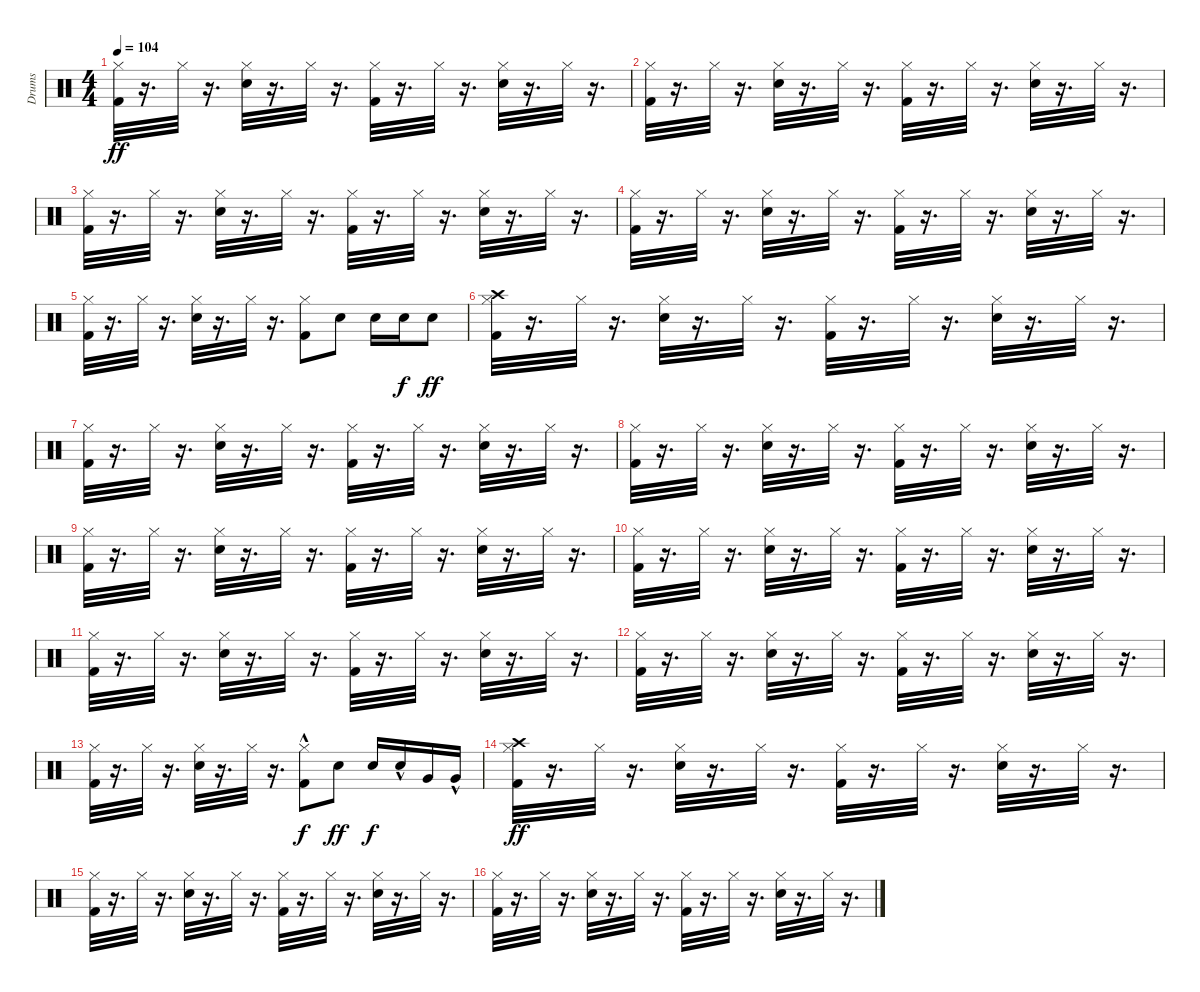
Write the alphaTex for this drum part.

\track ("Drums" "Drums") {instrument percussion}
\staff {score}
\articulation defaults
\ts (4 4)
\tempo 104
\clef neutral
\ks c
("Kick (hit) 2" "Hi-Hat (closed)").32{dy ff volume 12 balance 8} r.16{d} "Hi-Hat (closed)".32 r.16{d} ("Snare (hit) 2" "Hi-Hat (closed)").32 r.16{d} "Hi-Hat (closed)".32 r.16{d} ("Kick (hit) 2" "Hi-Hat (closed)").32 r.16{d} "Hi-Hat (closed)".32 r.16{d} ("Snare (hit) 2" "Hi-Hat (closed)").32 r.16{d} "Hi-Hat (closed)".32 r.16{d} |
("Kick (hit) 2" "Hi-Hat (closed)").32{volume 12 balance 8} r.16{d} "Hi-Hat (closed)".32 r.16{d} ("Snare (hit) 2" "Hi-Hat (closed)").32 r.16{d} "Hi-Hat (closed)".32 r.16{d} ("Kick (hit) 2" "Hi-Hat (closed)").32 r.16{d} "Hi-Hat (closed)".32 r.16{d} ("Snare (hit) 2" "Hi-Hat (closed)").32 r.16{d} "Hi-Hat (closed)".32 r.16{d} |
("Kick (hit) 2" "Hi-Hat (closed)").32{volume 12 balance 8} r.16{d} "Hi-Hat (closed)".32 r.16{d} ("Snare (hit) 2" "Hi-Hat (closed)").32 r.16{d} "Hi-Hat (closed)".32 r.16{d} ("Kick (hit) 2" "Hi-Hat (closed)").32 r.16{d} "Hi-Hat (closed)".32 r.16{d} ("Snare (hit) 2" "Hi-Hat (closed)").32 r.16{d} "Hi-Hat (closed)".32 r.16{d} |
("Kick (hit) 2" "Hi-Hat (closed)").32{volume 12 balance 8} r.16{d} "Hi-Hat (closed)".32 r.16{d} ("Snare (hit) 2" "Hi-Hat (closed)").32 r.16{d} "Hi-Hat (closed)".32 r.16{d} ("Kick (hit) 2" "Hi-Hat (closed)").32 r.16{d} "Hi-Hat (closed)".32 r.16{d} ("Snare (hit) 2" "Hi-Hat (closed)").32 r.16{d} "Hi-Hat (closed)".32 r.16{d} |
("Kick (hit) 2" "Hi-Hat (closed)").32{volume 12 balance 8} r.16{d} "Hi-Hat (closed)".32 r.16{d} ("Snare (hit) 2" "Hi-Hat (closed)").32 r.16{d} "Hi-Hat (closed)".32 r.16{d} ("Kick (hit) 2" "Hi-Hat (closed)").8 "Snare (hit) 2".8 "Snare (hit) 2".16 "Snare (hit) 2".16{dy f} "Snare (hit) 2".8{dy ff} |
("Kick (hit) 2" "Hi-Hat (closed)" "Crash high (hit)").32{volume 12 balance 8} r.16{d} "Hi-Hat (closed)".32 r.16{d} ("Snare (hit) 2" "Hi-Hat (closed)").32 r.16{d} "Hi-Hat (closed)".32 r.16{d} ("Kick (hit) 2" "Hi-Hat (closed)").32 r.16{d} "Hi-Hat (closed)".32 r.16{d} ("Snare (hit) 2" "Hi-Hat (closed)").32 r.16{d} "Hi-Hat (closed)".32 r.16{d} |
("Kick (hit) 2" "Hi-Hat (closed)").32{volume 12 balance 8} r.16{d} "Hi-Hat (closed)".32 r.16{d} ("Snare (hit) 2" "Hi-Hat (closed)").32 r.16{d} "Hi-Hat (closed)".32 r.16{d} ("Kick (hit) 2" "Hi-Hat (closed)").32 r.16{d} "Hi-Hat (closed)".32 r.16{d} ("Snare (hit) 2" "Hi-Hat (closed)").32 r.16{d} "Hi-Hat (closed)".32 r.16{d} |
("Kick (hit) 2" "Hi-Hat (closed)").32{volume 12 balance 8} r.16{d} "Hi-Hat (closed)".32 r.16{d} ("Snare (hit) 2" "Hi-Hat (closed)").32 r.16{d} "Hi-Hat (closed)".32 r.16{d} ("Kick (hit) 2" "Hi-Hat (closed)").32 r.16{d} "Hi-Hat (closed)".32 r.16{d} ("Snare (hit) 2" "Hi-Hat (closed)").32 r.16{d} "Hi-Hat (closed)".32 r.16{d} |
("Kick (hit) 2" "Hi-Hat (closed)").32{volume 12 balance 8} r.16{d} "Hi-Hat (closed)".32 r.16{d} ("Snare (hit) 2" "Hi-Hat (closed)").32 r.16{d} "Hi-Hat (closed)".32 r.16{d} ("Kick (hit) 2" "Hi-Hat (closed)").32 r.16{d} "Hi-Hat (closed)".32 r.16{d} ("Snare (hit) 2" "Hi-Hat (closed)").32 r.16{d} "Hi-Hat (closed)".32 r.16{d} |
("Kick (hit) 2" "Hi-Hat (closed)").32{volume 12 balance 8} r.16{d} "Hi-Hat (closed)".32 r.16{d} ("Snare (hit) 2" "Hi-Hat (closed)").32 r.16{d} "Hi-Hat (closed)".32 r.16{d} ("Kick (hit) 2" "Hi-Hat (closed)").32 r.16{d} "Hi-Hat (closed)".32 r.16{d} ("Snare (hit) 2" "Hi-Hat (closed)").32 r.16{d} "Hi-Hat (closed)".32 r.16{d} |
("Kick (hit) 2" "Hi-Hat (closed)").32{volume 12 balance 8} r.16{d} "Hi-Hat (closed)".32 r.16{d} ("Snare (hit) 2" "Hi-Hat (closed)").32 r.16{d} "Hi-Hat (closed)".32 r.16{d} ("Kick (hit) 2" "Hi-Hat (closed)").32 r.16{d} "Hi-Hat (closed)".32 r.16{d} ("Snare (hit) 2" "Hi-Hat (closed)").32 r.16{d} "Hi-Hat (closed)".32 r.16{d} |
("Kick (hit) 2" "Hi-Hat (closed)").32{volume 12 balance 8} r.16{d} "Hi-Hat (closed)".32 r.16{d} ("Snare (hit) 2" "Hi-Hat (closed)").32 r.16{d} "Hi-Hat (closed)".32 r.16{d} ("Kick (hit) 2" "Hi-Hat (closed)").32 r.16{d} "Hi-Hat (closed)".32 r.16{d} ("Snare (hit) 2" "Hi-Hat (closed)").32 r.16{d} "Hi-Hat (closed)".32 r.16{d} |
("Kick (hit) 2" "Hi-Hat (closed)").32{volume 12 balance 8} r.16{d} "Hi-Hat (closed)".32 r.16{d} ("Snare (hit) 2" "Hi-Hat (closed)").32 r.16{d} "Hi-Hat (closed)".32 r.16{d} ("Kick (hit) 2"{hac} "Hi-Hat (closed)"{hac}).8{dy f} "Snare (hit) 2".8{dy ff} "Snare (hit) 2".16{dy f} "Snare (hit) 2"{hac}.16 "Very Low Tom (hit)".16 "Very Low Tom (hit)"{hac}.16 |
("Kick (hit) 2" "Hi-Hat (closed)" "Crash high (hit)").32{dy ff volume 12 balance 8} r.16{d} "Hi-Hat (closed)".32 r.16{d} ("Snare (hit) 2" "Hi-Hat (closed)").32 r.16{d} "Hi-Hat (closed)".32 r.16{d} ("Kick (hit) 2" "Hi-Hat (closed)").32 r.16{d} "Hi-Hat (closed)".32 r.16{d} ("Snare (hit) 2" "Hi-Hat (closed)").32 r.16{d} "Hi-Hat (closed)".32 r.16{d} |
("Kick (hit) 2" "Hi-Hat (closed)").32{volume 12 balance 8} r.16{d} "Hi-Hat (closed)".32 r.16{d} ("Snare (hit) 2" "Hi-Hat (closed)").32 r.16{d} "Hi-Hat (closed)".32 r.16{d} ("Kick (hit) 2" "Hi-Hat (closed)").32 r.16{d} "Hi-Hat (closed)".32 r.16{d} ("Snare (hit) 2" "Hi-Hat (closed)").32 r.16{d} "Hi-Hat (closed)".32 r.16{d} |
("Kick (hit) 2" "Hi-Hat (closed)").32{volume 12 balance 8} r.16{d} "Hi-Hat (closed)".32 r.16{d} ("Snare (hit) 2" "Hi-Hat (closed)").32 r.16{d} "Hi-Hat (closed)".32 r.16{d} ("Kick (hit) 2" "Hi-Hat (closed)").32 r.16{d} "Hi-Hat (closed)".32 r.16{d} ("Snare (hit) 2" "Hi-Hat (closed)").32 r.16{d} "Hi-Hat (closed)".32 r.16{d}
